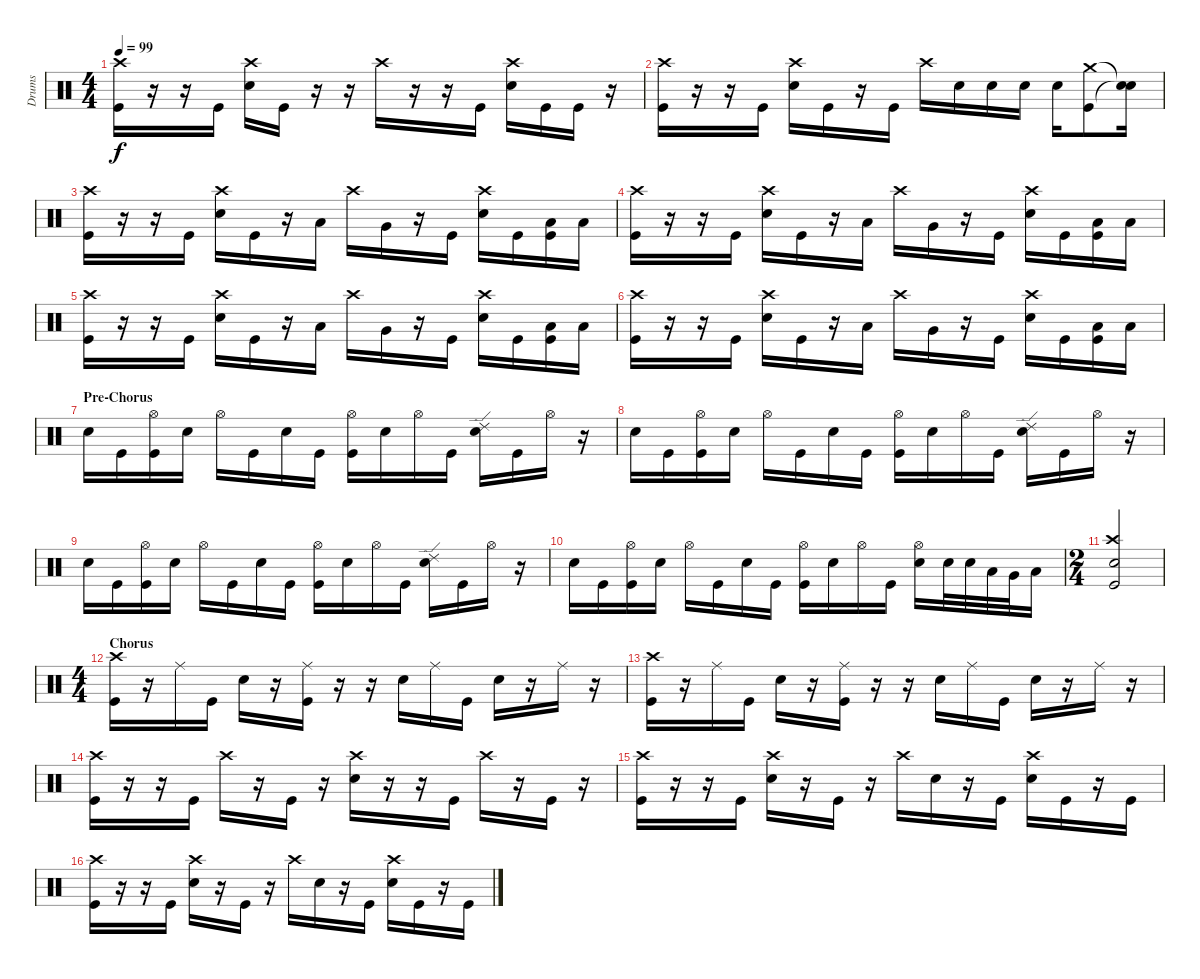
\track ("Drums" "Drums") {instrument percussion}
\staff {score}
\articulation defaults
\ts (4 4)
\tempo 99
\clef neutral
\ks c
("Kick (hit)" "Crash high (hit)").16{dy f} r.16 r.16 "Kick (hit)".16 ("Electric Snare (hit)" "Crash high (hit)").16 "Kick (hit)".16 r.16 r.16 "Crash high (hit)".16 r.16 r.16 "Kick (hit)".16 ("Electric Snare (hit)" "Crash high (hit)").16 "Kick (hit)".16 "Kick (hit)".16 r.16 |
("Kick (hit)" "Crash high (hit)").16 r.16 r.16 "Kick (hit)".16 ("Electric Snare (hit)" "Crash high (hit)").16 "Kick (hit)".16 r.16 "Kick (hit)".16 "Crash high (hit)".16 "Electric Snare (hit)".16 "Electric Snare (hit)".16 "Electric Snare (hit)".16 "Electric Snare (hit)".16 ("Crash medium (hit)" "Kick (hit)").8 ("Snare (hit)"{t} "Snare (hit)"{t}).16 |
("Kick (hit)" "Crash high (hit)").16 r.16 r.16 "Kick (hit)".16 ("Electric Snare (hit)" "Crash high (hit)").16 "Kick (hit)".16 r.16 "Low Tom (hit)".16 "Crash high (hit)".16 "Very Low Tom (hit)".16 r.16 "Kick (hit)".16 ("Electric Snare (hit)" "Crash high (hit)").16 "Kick (hit)".16 ("Kick (hit)" "Low Floor Tom (hit)").16 "Low Floor Tom (hit)".16 |
("Kick (hit)" "Crash high (hit)").16 r.16 r.16 "Kick (hit)".16 ("Electric Snare (hit)" "Crash high (hit)").16 "Kick (hit)".16 r.16 "Low Tom (hit)".16 "Crash high (hit)".16 "Very Low Tom (hit)".16 r.16 "Kick (hit)".16 ("Electric Snare (hit)" "Crash high (hit)").16 "Kick (hit)".16 ("Kick (hit)" "Low Floor Tom (hit)").16 "Low Floor Tom (hit)".16 |
("Kick (hit)" "Crash high (hit)").16 r.16 r.16 "Kick (hit)".16 ("Electric Snare (hit)" "Crash high (hit)").16 "Kick (hit)".16 r.16 "Low Tom (hit)".16 "Crash high (hit)".16 "Very Low Tom (hit)".16 r.16 "Kick (hit)".16 ("Electric Snare (hit)" "Crash high (hit)").16 "Kick (hit)".16 ("Kick (hit)" "Low Floor Tom (hit)").16 "Low Floor Tom (hit)".16 |
("Kick (hit)" "Crash high (hit)").16 r.16 r.16 "Kick (hit)".16 ("Electric Snare (hit)" "Crash high (hit)").16 "Kick (hit)".16 r.16 "Low Tom (hit)".16 "Crash high (hit)".16 "Very Low Tom (hit)".16 r.16 "Kick (hit)".16 ("Electric Snare (hit)" "Crash high (hit)").16 "Kick (hit)".16 ("Kick (hit)" "Low Floor Tom (hit)").16 "Low Floor Tom (hit)".16 |
\section ("" "Pre-Chorus")
"Electric Snare (hit)".16 "Kick (hit)".16 ("Hi-Hat (open)" "Kick (hit)").16 "Electric Snare (hit)".16 "Hi-Hat (open)".16 "Kick (hit)".16 "Electric Snare (hit)".16 "Kick (hit)".16 ("Hi-Hat (open)" "Kick (hit)").16 "Electric Snare (hit)".16 "Hi-Hat (open)".16 "Kick (hit)".16 ("Ride (edge) 2" "Electric Snare (hit)").16 "Kick (hit)".16 "Hi-Hat (open)".16 r.16 |
"Electric Snare (hit)".16 "Kick (hit)".16 ("Hi-Hat (open)" "Kick (hit)").16 "Electric Snare (hit)".16 "Hi-Hat (open)".16 "Kick (hit)".16 "Electric Snare (hit)".16 "Kick (hit)".16 ("Hi-Hat (open)" "Kick (hit)").16 "Electric Snare (hit)".16 "Hi-Hat (open)".16 "Kick (hit)".16 ("Ride (edge) 2" "Electric Snare (hit)").16 "Kick (hit)".16 "Hi-Hat (open)".16 r.16 |
"Electric Snare (hit)".16 "Kick (hit)".16 ("Hi-Hat (open)" "Kick (hit)").16 "Electric Snare (hit)".16 "Hi-Hat (open)".16 "Kick (hit)".16 "Electric Snare (hit)".16 "Kick (hit)".16 ("Hi-Hat (open)" "Kick (hit)").16 "Electric Snare (hit)".16 "Hi-Hat (open)".16 "Kick (hit)".16 ("Ride (edge) 2" "Electric Snare (hit)").16 "Kick (hit)".16 "Hi-Hat (open)".16 r.16 |
"Electric Snare (hit)".16 "Kick (hit)".16 ("Hi-Hat (open)" "Kick (hit)").16 "Electric Snare (hit)".16 "Hi-Hat (open)".16 "Kick (hit)".16 "Electric Snare (hit)".16 "Kick (hit)".16 ("Hi-Hat (open)" "Kick (hit)").16 "Electric Snare (hit)".16 "Hi-Hat (open)".16 "Kick (hit)".16 ("Hi-Hat (open)" "Electric Snare (hit)").16 "Electric Snare (hit)".32 "Electric Snare (hit)".32 "Low Tom (hit)".32 "Very Low Tom (hit)".32 "Low Floor Tom (hit)".16 |
\ts (2 4)
("Electric Snare (hit)" "Crash high (hit)" "Kick (hit)").2 |
\ts (4 4)
\section ("" "Chorus")
("Kick (hit)" "Crash high (hit)").16 r.16 "Ride (middle)".16 "Kick (hit)".16 "Electric Snare (hit)".16 r.16 ("Kick (hit)" "Ride (middle)").16 r.16 r.16 "Electric Snare (hit)".16 "Ride (middle)".16 "Kick (hit)".16 "Electric Snare (hit)".16 r.16 "Ride (middle)".16 r.16 |
("Kick (hit)" "Crash high (hit)").16 r.16 "Ride (middle)".16 "Kick (hit)".16 "Electric Snare (hit)".16 r.16 ("Kick (hit)" "Ride (middle)").16 r.16 r.16 "Electric Snare (hit)".16 "Ride (middle)".16 "Kick (hit)".16 "Electric Snare (hit)".16 r.16 "Ride (middle)".16 r.16 |
("Kick (hit)" "Crash high (hit)").16 r.16 r.16 "Kick (hit)".16 "Crash high (hit)".16 r.16 "Kick (hit)".16 r.16 ("Electric Snare (hit)" "Crash high (hit)").16 r.16 r.16 "Kick (hit)".16 "Crash high (hit)".16 r.16 "Kick (hit)".16 r.16 |
("Kick (hit)" "Crash high (hit)").16 r.16 r.16 "Kick (hit)".16 ("Electric Snare (hit)" "Crash high (hit)").16 r.16 "Kick (hit)".16 r.16 "Crash high (hit)".16 "Electric Snare (hit)".16 r.16 "Kick (hit)".16 ("Electric Snare (hit)" "Crash high (hit)").16 "Kick (hit)".16 r.16 "Kick (hit)".16 |
("Kick (hit)" "Crash high (hit)").16 r.16 r.16 "Kick (hit)".16 ("Electric Snare (hit)" "Crash high (hit)").16 r.16 "Kick (hit)".16 r.16 "Crash high (hit)".16 "Electric Snare (hit)".16 r.16 "Kick (hit)".16 ("Electric Snare (hit)" "Crash high (hit)").16 "Kick (hit)".16 r.16 "Kick (hit)".16
